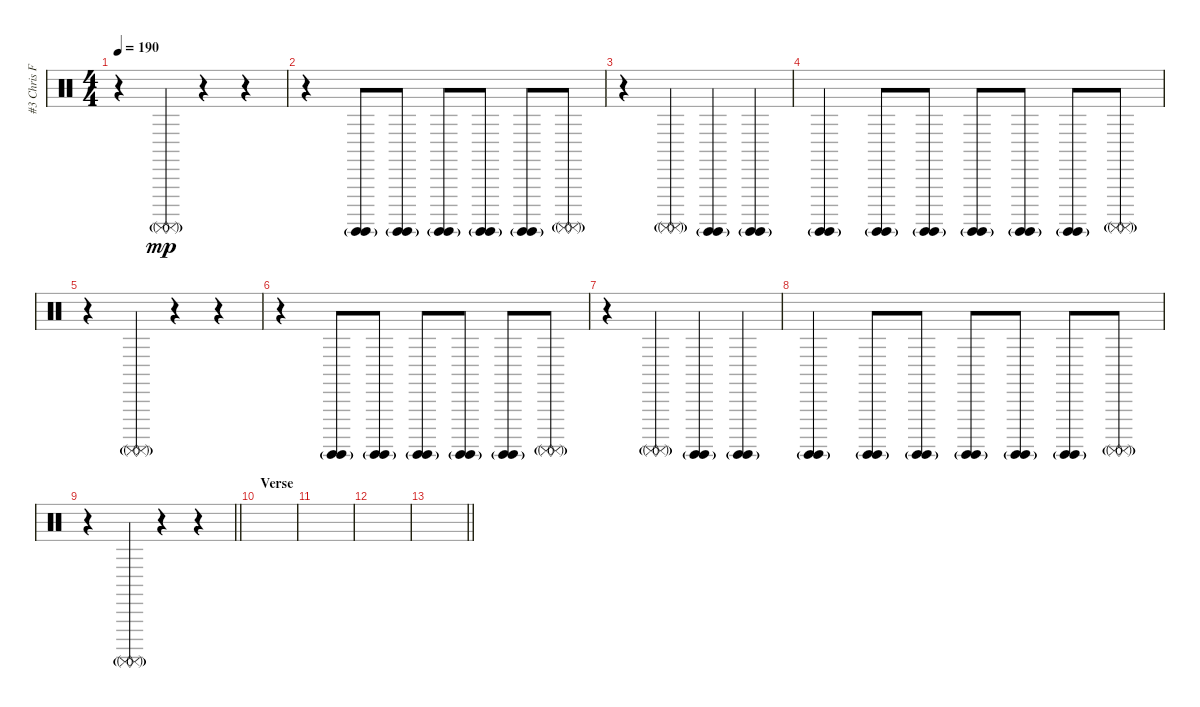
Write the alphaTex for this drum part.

\track ("#3 Chris Fehn" "#3 Chris F") {instrument percussion}
\staff {score}
\articulation defaults
\ts (4 4)
\tempo 190
\clef neutral
\ks c
r.4{dy mp} ("Surdo (mute)"{g} "Surdo (mute)"{g}).4 r.4 r.4 |
r.4 ("Surdo (hit)"{g} "Surdo (hit)"{g}).8 ("Surdo (hit)"{g} "Surdo (hit)"{g}).8 ("Surdo (hit)"{g} "Surdo (hit)"{g}).8 ("Surdo (hit)"{g} "Surdo (hit)"{g}).8 ("Surdo (hit)"{g} "Surdo (hit)"{g}).8 ("Surdo (mute)"{g} "Surdo (mute)"{g}).8 |
r.4 ("Surdo (mute)"{g} "Surdo (mute)"{g}).4 ("Surdo (hit)"{g} "Surdo (hit)"{g}).4 ("Surdo (hit)"{g} "Surdo (hit)"{g}).4 |
("Surdo (hit)"{g} "Surdo (hit)"{g}).4 ("Surdo (hit)"{g} "Surdo (hit)"{g}).8 ("Surdo (hit)"{g} "Surdo (hit)"{g}).8 ("Surdo (hit)"{g} "Surdo (hit)"{g}).8 ("Surdo (hit)"{g} "Surdo (hit)"{g}).8 ("Surdo (hit)"{g} "Surdo (hit)"{g}).8 ("Surdo (mute)"{g} "Surdo (mute)"{g}).8 |
r.4 ("Surdo (mute)"{g} "Surdo (mute)"{g}).4 r.4 r.4 |
r.4 ("Surdo (hit)"{g} "Surdo (hit)"{g}).8 ("Surdo (hit)"{g} "Surdo (hit)"{g}).8 ("Surdo (hit)"{g} "Surdo (hit)"{g}).8 ("Surdo (hit)"{g} "Surdo (hit)"{g}).8 ("Surdo (hit)"{g} "Surdo (hit)"{g}).8 ("Surdo (mute)"{g} "Surdo (mute)"{g}).8 |
r.4 ("Surdo (mute)"{g} "Surdo (mute)"{g}).4 ("Surdo (hit)"{g} "Surdo (hit)"{g}).4 ("Surdo (hit)"{g} "Surdo (hit)"{g}).4 |
("Surdo (hit)"{g} "Surdo (hit)"{g}).4 ("Surdo (hit)"{g} "Surdo (hit)"{g}).8 ("Surdo (hit)"{g} "Surdo (hit)"{g}).8 ("Surdo (hit)"{g} "Surdo (hit)"{g}).8 ("Surdo (hit)"{g} "Surdo (hit)"{g}).8 ("Surdo (hit)"{g} "Surdo (hit)"{g}).8 ("Surdo (mute)"{g} "Surdo (mute)"{g}).8 |
\barLineRight lightlight
r.4 ("Surdo (mute)"{g} "Surdo (mute)"{g}).4 r.4 r.4 |
\section ("" "Verse")
|
|
|
\barLineRight lightlight
